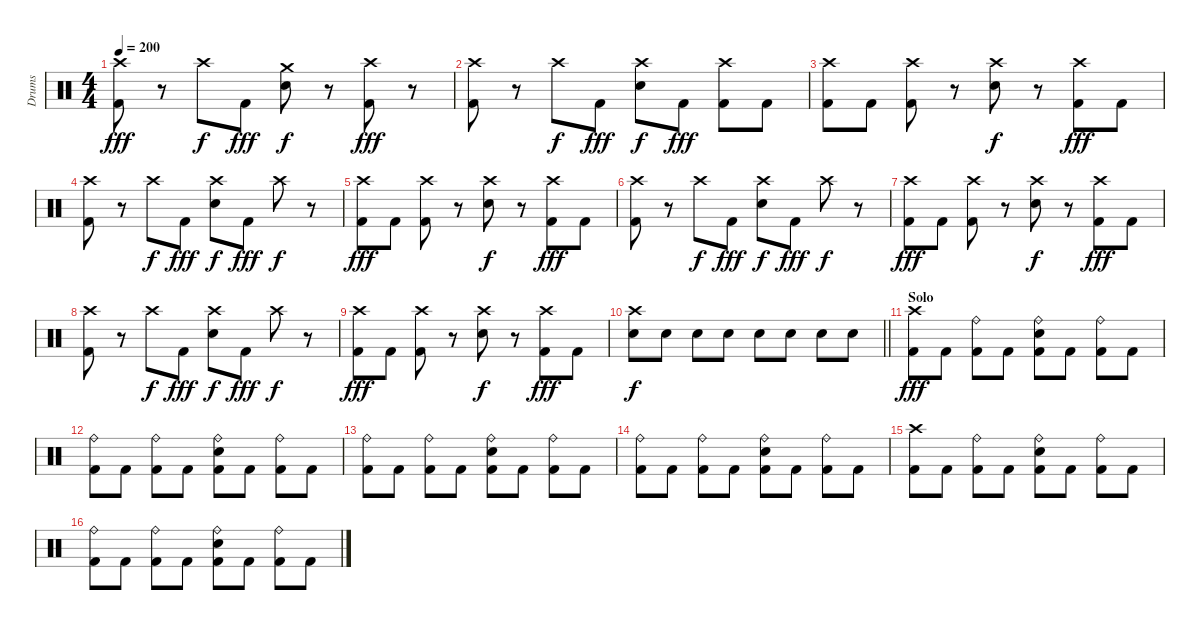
\track ("Drums" "Drums") {instrument percussion}
\staff {score}
\articulation defaults
\ts (4 4)
\tempo 200
\clef neutral
\ks c
("Crash high (hit)" "Kick (hit) 2").8{dy fff} r.8 "Crash high (hit)".8{dy f} "Kick (hit) 2".8{dy fff} ("Crash medium (hit)" "Electric Snare (hit)").8{dy f} r.8 ("Crash high (hit)" "Kick (hit) 2").8{dy fff} r.8 |
("Crash high (hit)" "Kick (hit) 2").8 r.8 "Crash high (hit)".8{dy f} "Kick (hit) 2".8{dy fff} ("Crash high (hit)" "Electric Snare (hit)").8{dy f} "Kick (hit) 2".8{dy fff} ("Crash high (hit)" "Kick (hit) 2").8 "Kick (hit) 2".8 |
("Crash high (hit)" "Kick (hit) 2").8 "Kick (hit) 2".8 ("Crash high (hit)" "Kick (hit) 2").8 r.8 ("Crash high (hit)" "Electric Snare (hit)").8{dy f} r.8 ("Crash high (hit)" "Kick (hit) 2").8{dy fff} "Kick (hit) 2".8 |
("Crash high (hit)" "Kick (hit) 2").8 r.8 "Crash high (hit)".8{dy f} "Kick (hit) 2".8{dy fff} ("Crash high (hit)" "Electric Snare (hit)").8{dy f} "Kick (hit) 2".8{dy fff} "Crash high (hit)".8{dy f} r.8 |
("Crash high (hit)" "Kick (hit) 2").8{dy fff} "Kick (hit) 2".8 ("Crash high (hit)" "Kick (hit) 2").8 r.8 ("Crash high (hit)" "Electric Snare (hit)").8{dy f} r.8 ("Crash high (hit)" "Kick (hit) 2").8{dy fff} "Kick (hit) 2".8 |
("Crash high (hit)" "Kick (hit) 2").8 r.8 "Crash high (hit)".8{dy f} "Kick (hit) 2".8{dy fff} ("Crash high (hit)" "Electric Snare (hit)").8{dy f} "Kick (hit) 2".8{dy fff} "Crash high (hit)".8{dy f} r.8 |
("Crash high (hit)" "Kick (hit) 2").8{dy fff} "Kick (hit) 2".8 ("Crash high (hit)" "Kick (hit) 2").8 r.8 ("Crash high (hit)" "Electric Snare (hit)").8{dy f} r.8 ("Crash high (hit)" "Kick (hit) 2").8{dy fff} "Kick (hit) 2".8 |
("Crash high (hit)" "Kick (hit) 2").8 r.8 "Crash high (hit)".8{dy f} "Kick (hit) 2".8{dy fff} ("Crash high (hit)" "Electric Snare (hit)").8{dy f} "Kick (hit) 2".8{dy fff} "Crash high (hit)".8{dy f} r.8 |
("Crash high (hit)" "Kick (hit) 2").8{dy fff} "Kick (hit) 2".8 ("Crash high (hit)" "Kick (hit) 2").8 r.8 ("Crash high (hit)" "Electric Snare (hit)").8{dy f} r.8 ("Crash high (hit)" "Kick (hit) 2").8{dy fff} "Kick (hit) 2".8 |
\barLineRight lightlight
("Crash high (hit)" "Electric Snare (hit)").8{dy f} "Electric Snare (hit)".8 "Electric Snare (hit)".8 "Electric Snare (hit)".8 "Electric Snare (hit)".8 "Electric Snare (hit)".8 "Electric Snare (hit)".8 "Electric Snare (hit)".8 |
\section ("" "Solo")
("Crash high (hit)" "Kick (hit) 2").8{dy fff} "Kick (hit) 2".8 ("Ride (bell)" "Kick (hit) 2").8 "Kick (hit) 2".8 ("Ride (bell)" "Electric Snare (hit)" "Kick (hit) 2").8 "Kick (hit) 2".8 ("Ride (bell)" "Kick (hit) 2").8 "Kick (hit) 2".8 |
("Ride (bell)" "Kick (hit) 2").8 "Kick (hit) 2".8 ("Ride (bell)" "Kick (hit) 2").8 "Kick (hit) 2".8 ("Ride (bell)" "Electric Snare (hit)" "Kick (hit) 2").8 "Kick (hit) 2".8 ("Ride (bell)" "Kick (hit) 2").8 "Kick (hit) 2".8 |
("Ride (bell)" "Kick (hit) 2").8 "Kick (hit) 2".8 ("Ride (bell)" "Kick (hit) 2").8 "Kick (hit) 2".8 ("Ride (bell)" "Electric Snare (hit)" "Kick (hit) 2").8 "Kick (hit) 2".8 ("Ride (bell)" "Kick (hit) 2").8 "Kick (hit) 2".8 |
("Ride (bell)" "Kick (hit) 2").8 "Kick (hit) 2".8 ("Ride (bell)" "Kick (hit) 2").8 "Kick (hit) 2".8 ("Ride (bell)" "Electric Snare (hit)" "Kick (hit) 2").8 "Kick (hit) 2".8 ("Ride (bell)" "Kick (hit) 2").8 "Kick (hit) 2".8 |
("Crash high (hit)" "Kick (hit) 2").8 "Kick (hit) 2".8 ("Ride (bell)" "Kick (hit) 2").8 "Kick (hit) 2".8 ("Ride (bell)" "Electric Snare (hit)" "Kick (hit) 2").8 "Kick (hit) 2".8 ("Ride (bell)" "Kick (hit) 2").8 "Kick (hit) 2".8 |
("Ride (bell)" "Kick (hit) 2").8 "Kick (hit) 2".8 ("Ride (bell)" "Kick (hit) 2").8 "Kick (hit) 2".8 ("Ride (bell)" "Electric Snare (hit)" "Kick (hit) 2").8 "Kick (hit) 2".8 ("Ride (bell)" "Kick (hit) 2").8 "Kick (hit) 2".8
